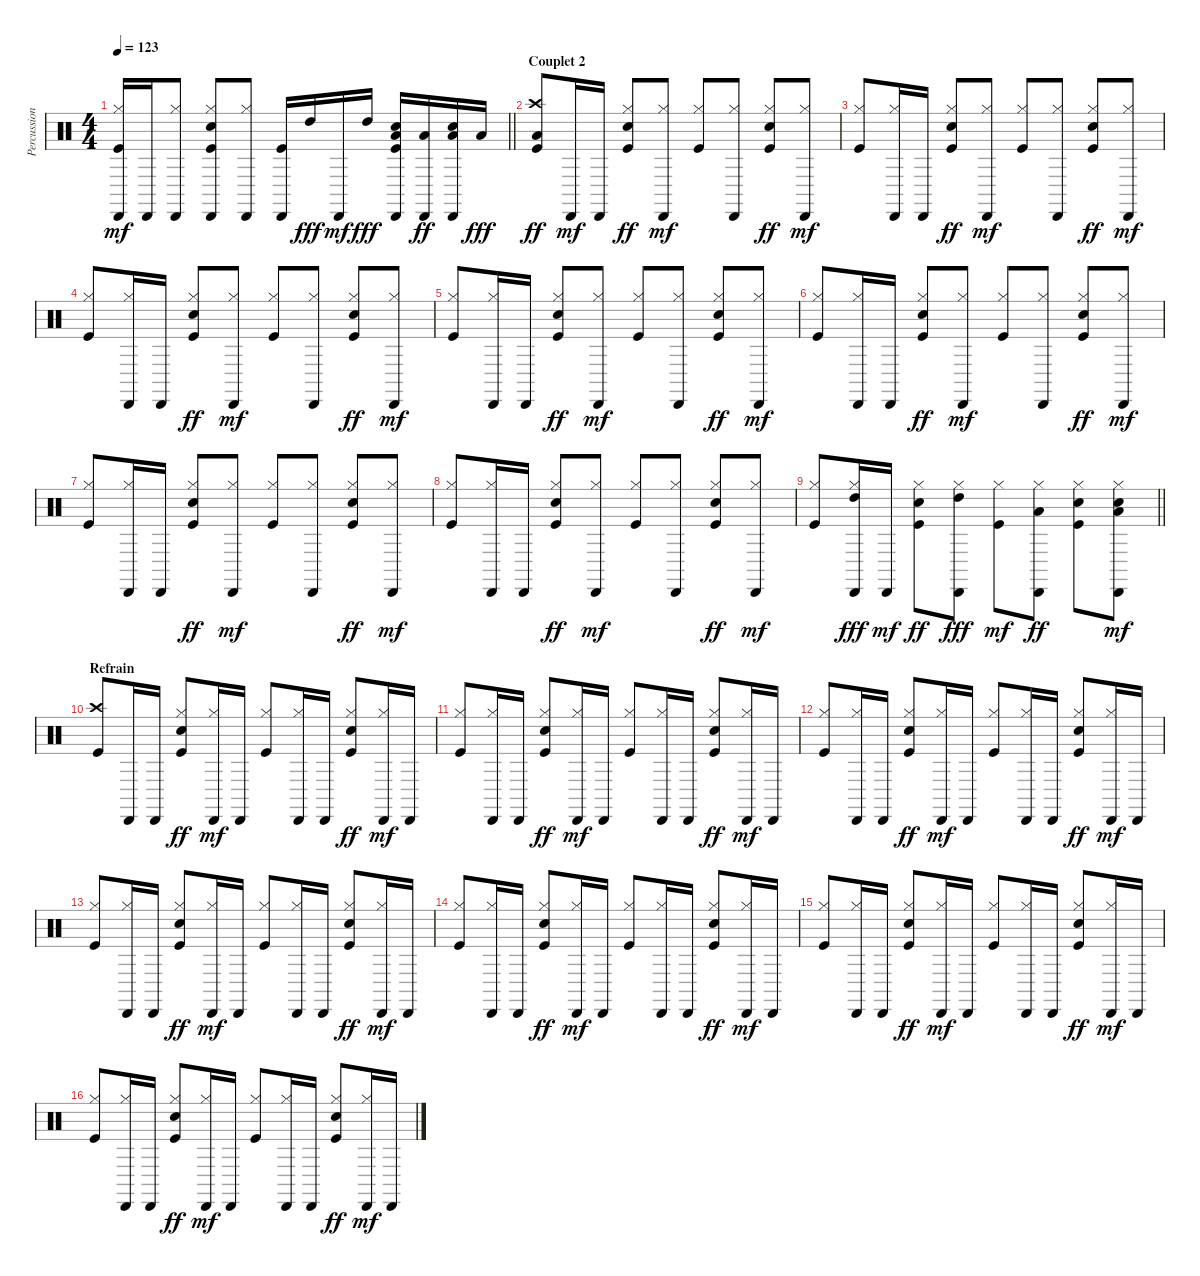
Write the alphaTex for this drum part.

\track ("Percussions" "Percussion") {instrument percussion}
\staff {score}
\articulation defaults
\ts (4 4)
\tempo 123
\clef neutral
\barLineRight lightlight
\ks c
("Kick (hit)" "Hi-Hat (closed)" "Cabasa (hit)").16{dy mf} "Cabasa (hit)".16 ("Hi-Hat (closed)" "Cabasa (hit)").8 ("Kick (hit)" "Snare (hit) 2" "Hi-Hat (closed)" "Cabasa (hit)").8 ("Hi-Hat (closed)" "Cabasa (hit)").8 ("Kick (hit)" "Cabasa (hit)").16 "High Tom (hit)".16{dy fff} "Cabasa (hit)".16{dy mf} "High Tom (hit)".16{dy fff} ("Kick (hit)" "Snare (hit) 2" "Cabasa (hit)" "Low Tom (hit)").16 ("Cabasa (hit)" "Low Tom (hit)").16{dy ff} ("Hand Clap (hit)" "Cabasa (hit)" "Low Tom (hit)").16 "Low Tom (hit)".16{dy fff} |
\section ("" "Couplet 2")
("Kick (hit)" "Crash high (hit)" "Low Tom (hit)").8{dy ff} "Cabasa (hit)".16{dy mf} "Cabasa (hit)".16 ("Kick (hit)" "Snare (hit) 2" "Hi-Hat (closed)").8{dy ff} ("Hi-Hat (closed)" "Cabasa (hit)").8{dy mf} ("Kick (hit)" "Hi-Hat (closed)").8 ("Hi-Hat (closed)" "Cabasa (hit)").8 ("Kick (hit)" "Snare (hit) 2" "Hi-Hat (closed)").8{dy ff} ("Hi-Hat (closed)" "Cabasa (hit)").8{dy mf} |
("Kick (hit)" "Hi-Hat (closed)").8 ("Hi-Hat (closed)" "Cabasa (hit)").16 "Cabasa (hit)".16 ("Kick (hit)" "Snare (hit) 2" "Hi-Hat (closed)").8{dy ff} ("Hi-Hat (closed)" "Cabasa (hit)").8{dy mf} ("Kick (hit)" "Hi-Hat (closed)").8 ("Hi-Hat (closed)" "Cabasa (hit)").8 ("Kick (hit)" "Snare (hit) 2" "Hi-Hat (closed)").8{dy ff} ("Hi-Hat (closed)" "Cabasa (hit)").8{dy mf} |
("Kick (hit)" "Hi-Hat (closed)").8 ("Hi-Hat (closed)" "Cabasa (hit)").16 "Cabasa (hit)".16 ("Kick (hit)" "Snare (hit) 2" "Hi-Hat (closed)").8{dy ff} ("Hi-Hat (closed)" "Cabasa (hit)").8{dy mf} ("Kick (hit)" "Hi-Hat (closed)").8 ("Hi-Hat (closed)" "Cabasa (hit)").8 ("Kick (hit)" "Snare (hit) 2" "Hi-Hat (closed)").8{dy ff} ("Hi-Hat (closed)" "Cabasa (hit)").8{dy mf} |
("Kick (hit)" "Hi-Hat (closed)").8 ("Hi-Hat (closed)" "Cabasa (hit)").16 "Cabasa (hit)".16 ("Kick (hit)" "Snare (hit) 2" "Hi-Hat (closed)").8{dy ff} ("Hi-Hat (closed)" "Cabasa (hit)").8{dy mf} ("Kick (hit)" "Hi-Hat (closed)").8 ("Hi-Hat (closed)" "Cabasa (hit)").8 ("Kick (hit)" "Snare (hit) 2" "Hi-Hat (closed)").8{dy ff} ("Hi-Hat (closed)" "Cabasa (hit)").8{dy mf} |
("Kick (hit)" "Hi-Hat (closed)").8 ("Hi-Hat (closed)" "Cabasa (hit)").16 "Cabasa (hit)".16 ("Kick (hit)" "Snare (hit) 2" "Hi-Hat (closed)").8{dy ff} ("Hi-Hat (closed)" "Cabasa (hit)").8{dy mf} ("Kick (hit)" "Hi-Hat (closed)").8 ("Hi-Hat (closed)" "Cabasa (hit)").8 ("Kick (hit)" "Snare (hit) 2" "Hi-Hat (closed)").8{dy ff} ("Hi-Hat (closed)" "Cabasa (hit)").8{dy mf} |
("Kick (hit)" "Hi-Hat (closed)").8 ("Hi-Hat (closed)" "Cabasa (hit)").16 "Cabasa (hit)".16 ("Kick (hit)" "Snare (hit) 2" "Hi-Hat (closed)").8{dy ff} ("Hi-Hat (closed)" "Cabasa (hit)").8{dy mf} ("Kick (hit)" "Hi-Hat (closed)").8 ("Hi-Hat (closed)" "Cabasa (hit)").8 ("Kick (hit)" "Snare (hit) 2" "Hi-Hat (closed)").8{dy ff} ("Hi-Hat (closed)" "Cabasa (hit)").8{dy mf} |
("Kick (hit)" "Hi-Hat (closed)").8 ("Hi-Hat (closed)" "Cabasa (hit)").16 "Cabasa (hit)".16 ("Kick (hit)" "Snare (hit) 2" "Hi-Hat (closed)").8{dy ff} ("Hi-Hat (closed)" "Cabasa (hit)").8{dy mf} ("Kick (hit)" "Hi-Hat (closed)").8 ("Hi-Hat (closed)" "Cabasa (hit)").8 ("Kick (hit)" "Snare (hit) 2" "Hi-Hat (closed)").8{dy ff} ("Hi-Hat (closed)" "Cabasa (hit)").8{dy mf} |
\barLineRight lightlight
("Kick (hit)" "Hi-Hat (closed)").8 ("Hi-Hat (closed)" "Cabasa (hit)" "High Tom (hit)").16{dy fff} "Cabasa (hit)".16{dy mf} ("Kick (hit)" "Snare (hit) 2" "Hi-Hat (closed)").8{dy ff} ("Hi-Hat (closed)" "Cabasa (hit)" "High Tom (hit)").8{dy fff} ("Kick (hit)" "Hi-Hat (closed)").8{dy mf} ("Hi-Hat (closed)" "Cabasa (hit)" "Low Tom (hit)").8{dy ff} ("Kick (hit)" "Snare (hit) 2" "Hi-Hat (closed)").8 ("Hi-Hat (closed)" "Hand Clap (hit)" "Cabasa (hit)" "Low Floor Tom (hit)").8{dy mf} |
\section ("" "Refrain")
("Kick (hit)" "Crash high (hit)").8 "Cabasa (hit)".16 "Cabasa (hit)".16 ("Kick (hit)" "Snare (hit) 2" "Hi-Hat (closed)").8{dy ff} ("Hi-Hat (closed)" "Cabasa (hit)").16{dy mf} "Cabasa (hit)".16 ("Kick (hit)" "Hi-Hat (closed)").8 ("Hi-Hat (closed)" "Cabasa (hit)").16 "Cabasa (hit)".16 ("Kick (hit)" "Snare (hit) 2" "Hi-Hat (closed)").8{dy ff} ("Hi-Hat (closed)" "Cabasa (hit)").16{dy mf} "Cabasa (hit)".16 |
("Kick (hit)" "Hi-Hat (closed)").8 ("Hi-Hat (closed)" "Cabasa (hit)").16 "Cabasa (hit)".16 ("Kick (hit)" "Snare (hit) 2" "Hi-Hat (closed)").8{dy ff} ("Hi-Hat (closed)" "Cabasa (hit)").16{dy mf} "Cabasa (hit)".16 ("Kick (hit)" "Hi-Hat (closed)").8 ("Hi-Hat (closed)" "Cabasa (hit)").16 "Cabasa (hit)".16 ("Kick (hit)" "Snare (hit) 2" "Hi-Hat (closed)").8{dy ff} ("Hi-Hat (closed)" "Cabasa (hit)").16{dy mf} "Cabasa (hit)".16 |
("Kick (hit)" "Hi-Hat (closed)").8 ("Hi-Hat (closed)" "Cabasa (hit)").16 "Cabasa (hit)".16 ("Kick (hit)" "Snare (hit) 2" "Hi-Hat (closed)").8{dy ff} ("Hi-Hat (closed)" "Cabasa (hit)").16{dy mf} "Cabasa (hit)".16 ("Kick (hit)" "Hi-Hat (closed)").8 ("Hi-Hat (closed)" "Cabasa (hit)").16 "Cabasa (hit)".16 ("Kick (hit)" "Snare (hit) 2" "Hi-Hat (closed)").8{dy ff} ("Hi-Hat (closed)" "Cabasa (hit)").16{dy mf} "Cabasa (hit)".16 |
("Kick (hit)" "Hi-Hat (closed)").8 ("Hi-Hat (closed)" "Cabasa (hit)").16 "Cabasa (hit)".16 ("Kick (hit)" "Snare (hit) 2" "Hi-Hat (closed)").8{dy ff} ("Hi-Hat (closed)" "Cabasa (hit)").16{dy mf} "Cabasa (hit)".16 ("Kick (hit)" "Hi-Hat (closed)").8 ("Hi-Hat (closed)" "Cabasa (hit)").16 "Cabasa (hit)".16 ("Kick (hit)" "Snare (hit) 2" "Hi-Hat (closed)").8{dy ff} ("Hi-Hat (closed)" "Cabasa (hit)").16{dy mf} "Cabasa (hit)".16 |
("Kick (hit)" "Hi-Hat (closed)").8 ("Hi-Hat (closed)" "Cabasa (hit)").16 "Cabasa (hit)".16 ("Kick (hit)" "Snare (hit) 2" "Hi-Hat (closed)").8{dy ff} ("Hi-Hat (closed)" "Cabasa (hit)").16{dy mf} "Cabasa (hit)".16 ("Kick (hit)" "Hi-Hat (closed)").8 ("Hi-Hat (closed)" "Cabasa (hit)").16 "Cabasa (hit)".16 ("Kick (hit)" "Snare (hit) 2" "Hi-Hat (closed)").8{dy ff} ("Hi-Hat (closed)" "Cabasa (hit)").16{dy mf} "Cabasa (hit)".16 |
("Kick (hit)" "Hi-Hat (closed)").8 ("Hi-Hat (closed)" "Cabasa (hit)").16 "Cabasa (hit)".16 ("Kick (hit)" "Snare (hit) 2" "Hi-Hat (closed)").8{dy ff} ("Hi-Hat (closed)" "Cabasa (hit)").16{dy mf} "Cabasa (hit)".16 ("Kick (hit)" "Hi-Hat (closed)").8 ("Hi-Hat (closed)" "Cabasa (hit)").16 "Cabasa (hit)".16 ("Kick (hit)" "Snare (hit) 2" "Hi-Hat (closed)").8{dy ff} ("Hi-Hat (closed)" "Cabasa (hit)").16{dy mf} "Cabasa (hit)".16 |
("Kick (hit)" "Hi-Hat (closed)").8 ("Hi-Hat (closed)" "Cabasa (hit)").16 "Cabasa (hit)".16 ("Kick (hit)" "Snare (hit) 2" "Hi-Hat (closed)").8{dy ff} ("Hi-Hat (closed)" "Cabasa (hit)").16{dy mf} "Cabasa (hit)".16 ("Kick (hit)" "Hi-Hat (closed)").8 ("Hi-Hat (closed)" "Cabasa (hit)").16 "Cabasa (hit)".16 ("Kick (hit)" "Snare (hit) 2" "Hi-Hat (closed)").8{dy ff} ("Hi-Hat (closed)" "Cabasa (hit)").16{dy mf} "Cabasa (hit)".16
